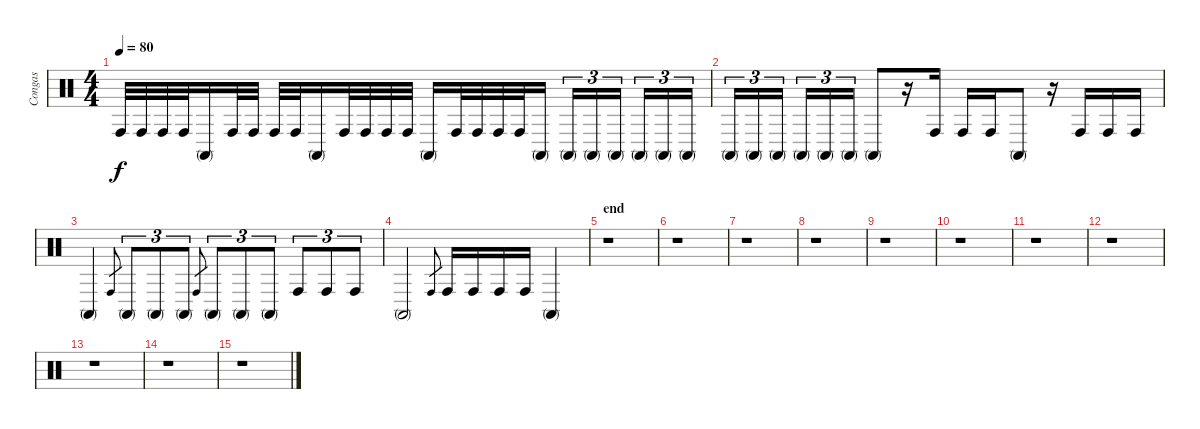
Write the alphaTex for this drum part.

\track ("Congas" "Congas") {instrument percussion}
\staff {score}
\articulation defaults
\ts (4 4)
\tempo 80
\clef neutral
\ks aminor "Conga high (hit)".32{dy f} "Conga high (hit)".32 "Conga high (hit)".32 "Conga high (hit)".32 "Conga high (mute)".16 "Conga high (hit)".32 "Conga high (hit)".32 "Conga high (hit)".32 "Conga high (hit)".32 "Conga high (mute)".16 "Conga high (hit)".32 "Conga high (hit)".32 "Conga high (hit)".32 "Conga high (hit)".32 "Conga high (mute)".16 "Conga high (hit)".32 "Conga high (hit)".32 "Conga high (hit)".32 "Conga high (hit)".32 "Conga high (mute)".16 "Conga high (mute)".16{tu (3 2)} "Conga high (mute)".16{tu (3 2)} "Conga high (mute)".16{tu (3 2)} "Conga high (mute)".16{tu (3 2)} "Conga high (mute)".16{tu (3 2)} "Conga high (mute)".16{tu (3 2)}
|
"Conga high (mute)".16{tu (3 2)} "Conga high (mute)".16{tu (3 2)} "Conga high (mute)".16{tu (3 2)} "Conga high (mute)".16{tu (3 2)} "Conga high (mute)".16{tu (3 2)} "Conga high (mute)".16{tu (3 2)} "Conga high (mute)".8 r.16 "Conga high (hit)".16 "Conga high (hit)".16 "Conga high (hit)".16 "Conga high (mute)".8 r.16 "Conga high (hit)".16 "Conga high (hit)".16 "Conga high (hit)".16 |
"Conga high (mute)".4 "Conga high (hit)".8{gr} "Conga high (mute)".8{tu (3 2)} "Conga high (mute)".8{tu (3 2)} "Conga high (mute)".8{tu (3 2)} "Conga high (hit)".8{gr} "Conga high (mute)".8{tu (3 2)} "Conga high (mute)".8{tu (3 2)} "Conga high (mute)".8{tu (3 2)} "Conga high (hit)".8{tu (3 2)} "Conga high (hit)".8{tu (3 2)} "Conga high (hit)".8{tu (3 2)} |
"Conga high (mute)".2 "Conga high (hit)".8{gr} "Conga high (hit)".16 "Conga high (hit)".16 "Conga high (hit)".16 "Conga high (hit)".16 "Conga high (mute)".4 |
\section ("" "end")
r.1 |
r.1 |
r.1 |
r.1 |
r.1 |
r.1 |
r.1 |
r.1 |
r.1 |
r.1 |
r.1
